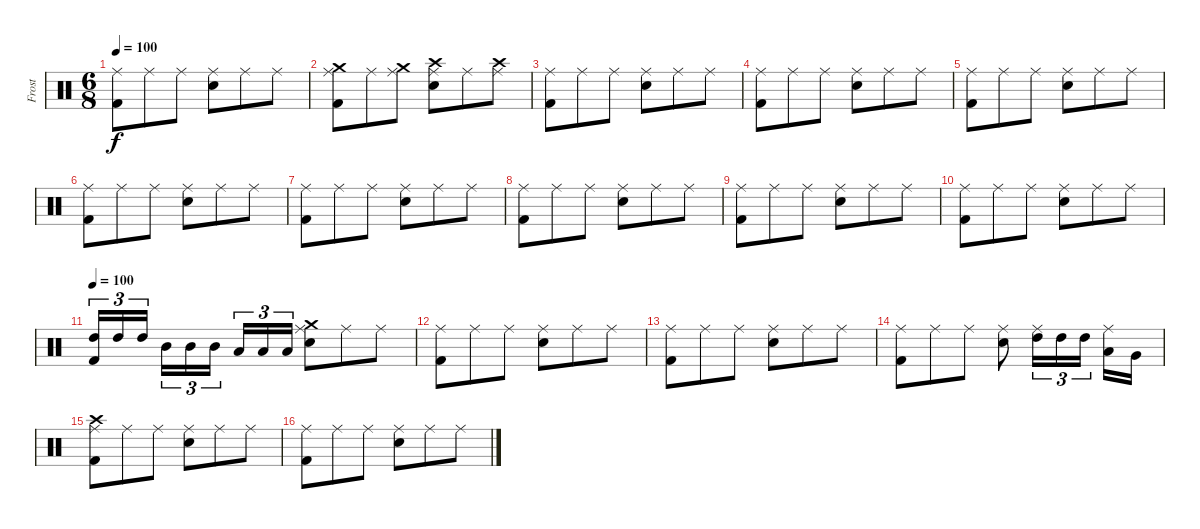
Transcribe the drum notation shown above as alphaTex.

\track ("Frost" "Frost") {instrument percussion}
\staff {score}
\articulation defaults
\ts (6 8)
\tempo 100
\clef neutral
\ks c
("Kick (hit) 2" "Ride (middle)").8{dy f} "Ride (middle)".8 "Ride (middle)".8 ("Snare (hit) 2" "Ride (middle)").8 "Ride (middle)".8 "Ride (middle)".8 |
("Kick (hit) 2" "Crash medium (hit)" "Ride (middle)").8 "Ride (middle)".8 ("Crash medium (hit)" "Ride (middle)").8 ("Crash high (hit)" "Snare (hit) 2" "Ride (middle)").8 "Ride (middle)".8 ("Crash high (hit)" "Ride (middle)").8 |
("Kick (hit) 2" "Ride (middle)").8 "Ride (middle)".8 "Ride (middle)".8 ("Snare (hit) 2" "Ride (middle)").8 "Ride (middle)".8 "Ride (middle)".8 |
("Kick (hit) 2" "Ride (middle)").8 "Ride (middle)".8 "Ride (middle)".8 ("Snare (hit) 2" "Ride (middle)").8 "Ride (middle)".8 "Ride (middle)".8 |
("Kick (hit) 2" "Ride (middle)").8 "Ride (middle)".8 "Ride (middle)".8 ("Snare (hit) 2" "Ride (middle)").8 "Ride (middle)".8 "Ride (middle)".8 |
("Kick (hit) 2" "Ride (middle)").8 "Ride (middle)".8 "Ride (middle)".8 ("Snare (hit) 2" "Ride (middle)").8 "Ride (middle)".8 "Ride (middle)".8 |
("Kick (hit) 2" "Ride (middle)").8 "Ride (middle)".8 "Ride (middle)".8 ("Snare (hit) 2" "Ride (middle)").8 "Ride (middle)".8 "Ride (middle)".8 |
("Kick (hit) 2" "Ride (middle)").8 "Ride (middle)".8 "Ride (middle)".8 ("Snare (hit) 2" "Ride (middle)").8 "Ride (middle)".8 "Ride (middle)".8 |
("Kick (hit) 2" "Ride (middle)").8 "Ride (middle)".8 "Ride (middle)".8 ("Snare (hit) 2" "Ride (middle)").8 "Ride (middle)".8 "Ride (middle)".8 |
("Kick (hit) 2" "Ride (middle)").8 "Ride (middle)".8 "Ride (middle)".8 ("Snare (hit) 2" "Ride (middle)").8 "Ride (middle)".8 "Ride (middle)".8 |
\tempo 100
("Kick (hit) 2" "High Tom (hit)").16{tu (3 2)} "High Tom (hit)".16{tu (3 2)} "High Tom (hit)".16{tu (3 2)} "Mid Tom (hit)".16{tu (3 2)} "Mid Tom (hit)".16{tu (3 2)} "Mid Tom (hit)".16{tu (3 2)} "Low Tom (hit)".16{tu (3 2)} "Low Tom (hit)".16{tu (3 2)} "Low Tom (hit)".16{tu (3 2)} ("Crash medium (hit)" "Snare (hit) 2" "Ride (middle)").8 "Ride (middle)".8 "Ride (middle)".8 |
("Kick (hit) 2" "Ride (middle)").8 "Ride (middle)".8 "Ride (middle)".8 ("Snare (hit) 2" "Ride (middle)").8 "Ride (middle)".8 "Ride (middle)".8 |
("Kick (hit) 2" "Ride (middle)").8 "Ride (middle)".8 "Ride (middle)".8 ("Snare (hit) 2" "Ride (middle)").8 "Ride (middle)".8 "Ride (middle)".8 |
("Kick (hit) 2" "Ride (middle)").8 "Ride (middle)".8 "Ride (middle)".8 ("Snare (hit) 2" "Ride (middle)").8 ("High Tom (hit)" "Ride (middle)").16{tu (3 2)} "High Tom (hit)".16{tu (3 2)} "High Tom (hit)".16{tu (3 2)} ("Low Tom (hit)" "Ride (middle)").16 "Very Low Tom (hit)".16 |
("Kick (hit) 2" "Crash high (hit)" "Ride (middle)").8 "Ride (middle)".8 "Ride (middle)".8 ("Snare (hit) 2" "Ride (middle)").8 "Ride (middle)".8 "Ride (middle)".8 |
("Kick (hit) 2" "Ride (middle)").8 "Ride (middle)".8 "Ride (middle)".8 ("Snare (hit) 2" "Ride (middle)").8 "Ride (middle)".8 "Ride (middle)".8
